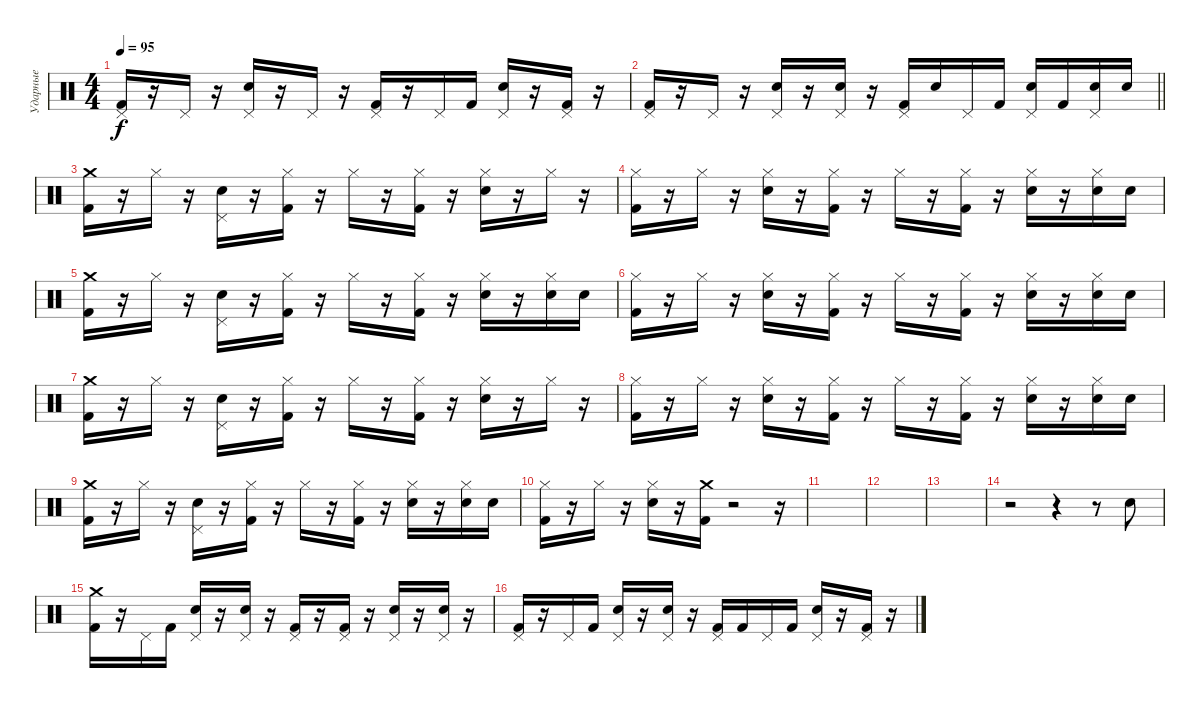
\track ("Ударные" "Ударные") {instrument percussion}
\staff {score}
\articulation defaults
\ts (4 4)
\tempo 95
\clef neutral
\ks c
("Pedal Hi-Hat (hit)" "Kick (hit) 2").16{dy f} r.16 "Pedal Hi-Hat (hit)".16 r.16 ("Pedal Hi-Hat (hit)" "Electric Snare (hit)").16 r.16 "Pedal Hi-Hat (hit)".16 r.16 ("Pedal Hi-Hat (hit)" "Kick (hit) 2").16 r.16 "Pedal Hi-Hat (hit)".16 "Kick (hit) 2".16 ("Pedal Hi-Hat (hit)" "Electric Snare (hit)").16 r.16 ("Pedal Hi-Hat (hit)" "Kick (hit) 2").16 r.16 |
\barLineRight lightlight
("Pedal Hi-Hat (hit)" "Kick (hit) 2").16 r.16 "Pedal Hi-Hat (hit)".16 r.16 ("Pedal Hi-Hat (hit)" "Electric Snare (hit)").16 r.16 ("Pedal Hi-Hat (hit)" "Electric Snare (hit)").16 r.16 ("Pedal Hi-Hat (hit)" "Kick (hit) 2").16 "Electric Snare (hit)".16 "Pedal Hi-Hat (hit)".16 "Kick (hit) 2".16 ("Pedal Hi-Hat (hit)" "Electric Snare (hit)").16 "Kick (hit) 2".16 ("Pedal Hi-Hat (hit)" "Electric Snare (hit)").16 "Electric Snare (hit)".16 |
\section ("" "")
("Crash medium (hit)" "Kick (hit) 2").16 r.16 "Hi-Hat (closed)".16 r.16 ("Pedal Hi-Hat (hit)" "Electric Snare (hit)").16 r.16 ("Hi-Hat (closed)" "Kick (hit) 2").16 r.16 "Hi-Hat (closed)".16 r.16 ("Hi-Hat (closed)" "Kick (hit) 2").16 r.16 ("Hi-Hat (closed)" "Electric Snare (hit)").16 r.16 "Hi-Hat (closed)".16 r.16 |
("Hi-Hat (closed)" "Kick (hit) 2").16 r.16 "Hi-Hat (closed)".16 r.16 ("Hi-Hat (closed)" "Electric Snare (hit)").16 r.16 ("Hi-Hat (closed)" "Kick (hit) 2").16 r.16 "Hi-Hat (closed)".16 r.16 ("Hi-Hat (closed)" "Kick (hit) 2").16 r.16 ("Hi-Hat (closed)" "Electric Snare (hit)").16 r.16 ("Hi-Hat (closed)" "Electric Snare (hit)").16 "Electric Snare (hit)".16 |
("Crash medium (hit)" "Kick (hit) 2").16 r.16 "Hi-Hat (closed)".16 r.16 ("Pedal Hi-Hat (hit)" "Electric Snare (hit)").16 r.16 ("Hi-Hat (closed)" "Kick (hit) 2").16 r.16 "Hi-Hat (closed)".16 r.16 ("Hi-Hat (closed)" "Kick (hit) 2").16 r.16 ("Hi-Hat (closed)" "Electric Snare (hit)").16 r.16 ("Hi-Hat (closed)" "Electric Snare (hit)").16 "Electric Snare (hit)".16 |
("Hi-Hat (closed)" "Kick (hit) 2").16 r.16 "Hi-Hat (closed)".16 r.16 ("Hi-Hat (closed)" "Electric Snare (hit)").16 r.16 ("Hi-Hat (closed)" "Kick (hit) 2").16 r.16 "Hi-Hat (closed)".16 r.16 ("Hi-Hat (closed)" "Kick (hit) 2").16 r.16 ("Hi-Hat (closed)" "Electric Snare (hit)").16 r.16 ("Hi-Hat (closed)" "Electric Snare (hit)").16 "Electric Snare (hit)".16 |
("Crash medium (hit)" "Kick (hit) 2").16 r.16 "Hi-Hat (closed)".16 r.16 ("Pedal Hi-Hat (hit)" "Electric Snare (hit)").16 r.16 ("Hi-Hat (closed)" "Kick (hit) 2").16 r.16 "Hi-Hat (closed)".16 r.16 ("Hi-Hat (closed)" "Kick (hit) 2").16 r.16 ("Hi-Hat (closed)" "Electric Snare (hit)").16 r.16 "Hi-Hat (closed)".16 r.16 |
("Hi-Hat (closed)" "Kick (hit) 2").16 r.16 "Hi-Hat (closed)".16 r.16 ("Hi-Hat (closed)" "Electric Snare (hit)").16 r.16 ("Hi-Hat (closed)" "Kick (hit) 2").16 r.16 "Hi-Hat (closed)".16 r.16 ("Hi-Hat (closed)" "Kick (hit) 2").16 r.16 ("Hi-Hat (closed)" "Electric Snare (hit)").16 r.16 ("Hi-Hat (closed)" "Electric Snare (hit)").16 "Electric Snare (hit)".16 |
("Crash medium (hit)" "Kick (hit) 2").16 r.16 "Hi-Hat (closed)".16 r.16 ("Pedal Hi-Hat (hit)" "Electric Snare (hit)").16 r.16 ("Hi-Hat (closed)" "Kick (hit) 2").16 r.16 "Hi-Hat (closed)".16 r.16 ("Hi-Hat (closed)" "Kick (hit) 2").16 r.16 ("Hi-Hat (closed)" "Electric Snare (hit)").16 r.16 ("Hi-Hat (closed)" "Electric Snare (hit)").16 "Electric Snare (hit)".16 |
("Hi-Hat (closed)" "Kick (hit) 2").16 r.16 "Hi-Hat (closed)".16 r.16 ("Hi-Hat (closed)" "Electric Snare (hit)").16 r.16 ("Crash medium (hit)" "Kick (hit) 2").16 r.2 r.16 |
|
|
|
r.2 r.4 r.8 "Snare (hit) 2".8 |
("Crash medium (hit)" "Kick (hit) 2").16 r.16 "Pedal Hi-Hat (hit)".16 "Kick (hit) 2".16 ("Pedal Hi-Hat (hit)" "Snare (hit) 2").16 r.16 ("Pedal Hi-Hat (hit)" "Snare (hit) 2").16 r.16 ("Pedal Hi-Hat (hit)" "Kick (hit) 2").16 r.16 ("Pedal Hi-Hat (hit)" "Kick (hit) 2").16 r.16 ("Pedal Hi-Hat (hit)" "Snare (hit) 2").16 r.16 ("Pedal Hi-Hat (hit)" "Snare (hit) 2").16 r.16 |
("Pedal Hi-Hat (hit)" "Kick (hit) 2").16 r.16 "Pedal Hi-Hat (hit)".16 "Kick (hit) 2".16 ("Pedal Hi-Hat (hit)" "Snare (hit) 2").16 r.16 ("Pedal Hi-Hat (hit)" "Snare (hit) 2").16 r.16 ("Pedal Hi-Hat (hit)" "Kick (hit) 2").16 "Kick (hit) 2".16 "Pedal Hi-Hat (hit)".16 "Kick (hit) 2".16 ("Pedal Hi-Hat (hit)" "Snare (hit) 2").16 r.16 ("Pedal Hi-Hat (hit)" "Kick (hit) 2").16 r.16
